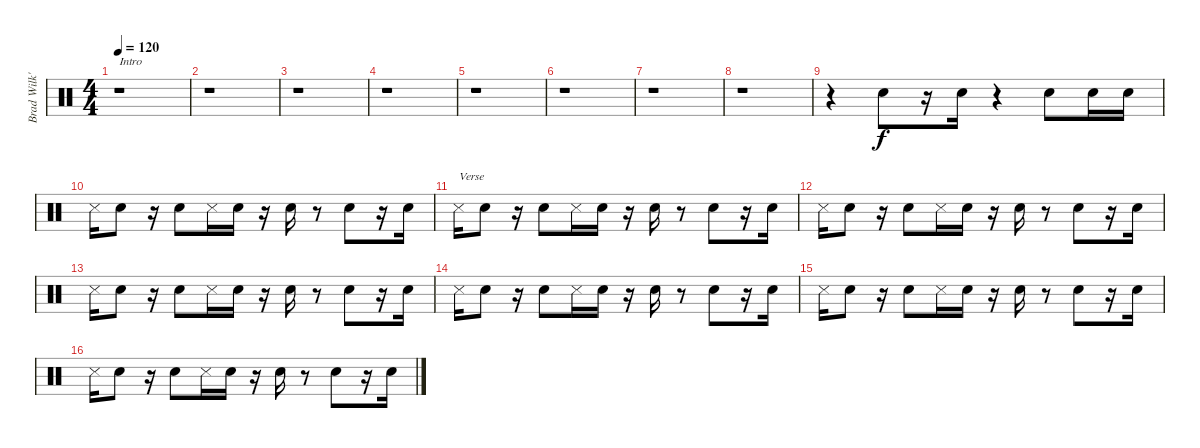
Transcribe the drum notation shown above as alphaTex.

\track ("Brad Wilk's Snare Drum" "Brad Wilk'") {instrument percussion}
\staff {score}
\articulation defaults
\ts (4 4)
\tempo 120
\clef neutral
\ks c
r.1{txt "Intro" dy f} |
r.1 |
r.1 |
r.1 |
r.1 |
r.1 |
r.1 |
r.1 |
r.4 "Electric Snare (hit)".8 r.16 "Electric Snare (hit)".16 r.4 "Electric Snare (hit)".8 "Electric Snare (hit)".16 "Electric Snare (hit)".16 |
"Snare (side stick) 3".16 "Electric Snare (hit)".8 r.16 "Electric Snare (hit)".8 "Snare (side stick) 3".16 "Electric Snare (hit)".16 r.16 "Electric Snare (hit)".16 r.8 "Electric Snare (hit)".8 r.16 "Electric Snare (hit)".16 |
"Snare (side stick) 3".16{txt "Verse"} "Electric Snare (hit)".8 r.16 "Electric Snare (hit)".8 "Snare (side stick) 3".16 "Electric Snare (hit)".16 r.16 "Electric Snare (hit)".16 r.8 "Electric Snare (hit)".8 r.16 "Electric Snare (hit)".16 |
"Snare (side stick) 3".16 "Electric Snare (hit)".8 r.16 "Electric Snare (hit)".8 "Snare (side stick) 3".16 "Electric Snare (hit)".16 r.16 "Electric Snare (hit)".16 r.8 "Electric Snare (hit)".8 r.16 "Electric Snare (hit)".16 |
"Snare (side stick) 3".16 "Electric Snare (hit)".8 r.16 "Electric Snare (hit)".8 "Snare (side stick) 3".16 "Electric Snare (hit)".16 r.16 "Electric Snare (hit)".16 r.8 "Electric Snare (hit)".8 r.16 "Electric Snare (hit)".16 |
"Snare (side stick) 3".16 "Electric Snare (hit)".8 r.16 "Electric Snare (hit)".8 "Snare (side stick) 3".16 "Electric Snare (hit)".16 r.16 "Electric Snare (hit)".16 r.8 "Electric Snare (hit)".8 r.16 "Electric Snare (hit)".16 |
"Snare (side stick) 3".16 "Electric Snare (hit)".8 r.16 "Electric Snare (hit)".8 "Snare (side stick) 3".16 "Electric Snare (hit)".16 r.16 "Electric Snare (hit)".16 r.8 "Electric Snare (hit)".8 r.16 "Electric Snare (hit)".16 |
"Snare (side stick) 3".16 "Electric Snare (hit)".8 r.16 "Electric Snare (hit)".8 "Snare (side stick) 3".16 "Electric Snare (hit)".16 r.16 "Electric Snare (hit)".16 r.8 "Electric Snare (hit)".8 r.16 "Electric Snare (hit)".16
